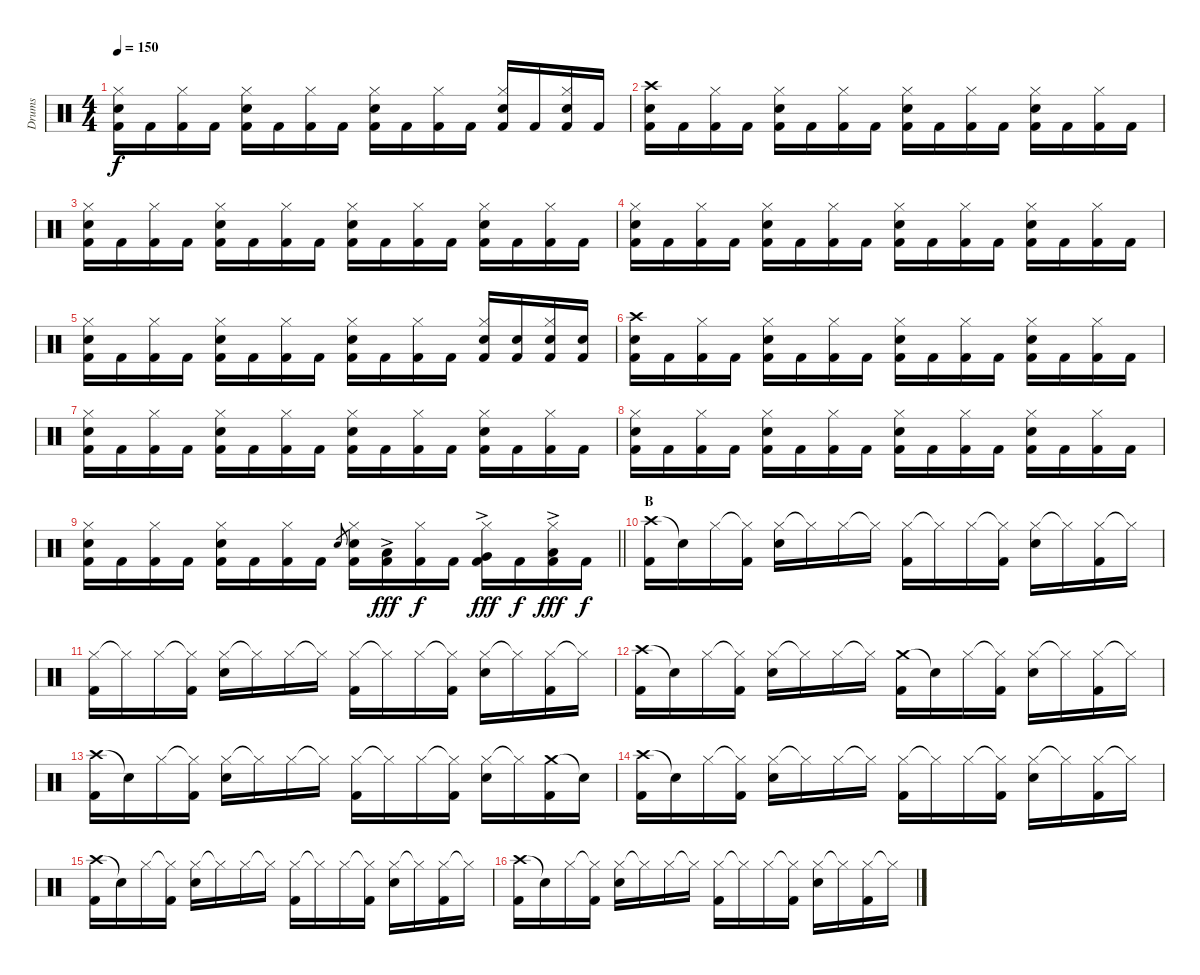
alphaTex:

\track ("Drums" "Drums") {instrument percussion}
\staff {score}
\articulation defaults
\ts (4 4)
\tempo 150
\clef neutral
\ks c
("Snare (hit) 2" "Hi-Hat (closed)" "Kick (hit) 2").16{dy f} "Kick (hit) 2".16 ("Hi-Hat (closed)" "Kick (hit) 2").16 "Kick (hit) 2".16 ("Snare (hit) 2" "Hi-Hat (closed)" "Kick (hit) 2").16 "Kick (hit) 2".16 ("Hi-Hat (closed)" "Kick (hit) 2").16 "Kick (hit) 2".16 ("Snare (hit) 2" "Hi-Hat (closed)" "Kick (hit) 2").16 "Kick (hit) 2".16 ("Hi-Hat (closed)" "Kick (hit) 2").16 "Kick (hit) 2".16 ("Snare (hit) 2" "Hi-Hat (closed)" "Kick (hit) 2").16 "Kick (hit) 2".16 ("Snare (hit) 2" "Hi-Hat (closed)" "Kick (hit) 2").16 "Kick (hit) 2".16 |
\section ("" "")
("Crash high (hit)" "Snare (hit) 2" "Kick (hit) 2").16 "Kick (hit) 2".16 ("Hi-Hat (closed)" "Kick (hit) 2").16 "Kick (hit) 2".16 ("Hi-Hat (closed)" "Snare (hit) 2" "Kick (hit) 2").16 "Kick (hit) 2".16 ("Hi-Hat (closed)" "Kick (hit) 2").16 "Kick (hit) 2".16 ("Hi-Hat (closed)" "Snare (hit) 2" "Kick (hit) 2").16 "Kick (hit) 2".16 ("Hi-Hat (closed)" "Kick (hit) 2").16 "Kick (hit) 2".16 ("Hi-Hat (closed)" "Snare (hit) 2" "Kick (hit) 2").16 "Kick (hit) 2".16 ("Hi-Hat (closed)" "Kick (hit) 2").16 "Kick (hit) 2".16 |
("Snare (hit) 2" "Hi-Hat (closed)" "Kick (hit) 2").16 "Kick (hit) 2".16 ("Hi-Hat (closed)" "Kick (hit) 2").16 "Kick (hit) 2".16 ("Snare (hit) 2" "Hi-Hat (closed)" "Kick (hit) 2").16 "Kick (hit) 2".16 ("Hi-Hat (closed)" "Kick (hit) 2").16 "Kick (hit) 2".16 ("Snare (hit) 2" "Hi-Hat (closed)" "Kick (hit) 2").16 "Kick (hit) 2".16 ("Hi-Hat (closed)" "Kick (hit) 2").16 "Kick (hit) 2".16 ("Snare (hit) 2" "Hi-Hat (closed)" "Kick (hit) 2").16 "Kick (hit) 2".16 ("Hi-Hat (closed)" "Kick (hit) 2").16 "Kick (hit) 2".16 |
("Snare (hit) 2" "Hi-Hat (closed)" "Kick (hit) 2").16 "Kick (hit) 2".16 ("Hi-Hat (closed)" "Kick (hit) 2").16 "Kick (hit) 2".16 ("Snare (hit) 2" "Hi-Hat (closed)" "Kick (hit) 2").16 "Kick (hit) 2".16 ("Hi-Hat (closed)" "Kick (hit) 2").16 "Kick (hit) 2".16 ("Snare (hit) 2" "Hi-Hat (closed)" "Kick (hit) 2").16 "Kick (hit) 2".16 ("Hi-Hat (closed)" "Kick (hit) 2").16 "Kick (hit) 2".16 ("Snare (hit) 2" "Hi-Hat (closed)" "Kick (hit) 2").16 "Kick (hit) 2".16 ("Hi-Hat (closed)" "Kick (hit) 2").16 "Kick (hit) 2".16 |
("Snare (hit) 2" "Hi-Hat (closed)" "Kick (hit) 2").16 "Kick (hit) 2".16 ("Hi-Hat (closed)" "Kick (hit) 2").16 "Kick (hit) 2".16 ("Snare (hit) 2" "Hi-Hat (closed)" "Kick (hit) 2").16 "Kick (hit) 2".16 ("Hi-Hat (closed)" "Kick (hit) 2").16 "Kick (hit) 2".16 ("Snare (hit) 2" "Hi-Hat (closed)" "Kick (hit) 2").16 "Kick (hit) 2".16 ("Hi-Hat (closed)" "Kick (hit) 2").16 "Kick (hit) 2".16 ("Snare (hit) 2" "Hi-Hat (closed)" "Kick (hit) 2").16 ("Snare (hit) 2" "Kick (hit) 2").16 ("Snare (hit) 2" "Hi-Hat (closed)" "Kick (hit) 2").16 ("Snare (hit) 2" "Kick (hit) 2").16 |
("Crash high (hit)" "Snare (hit) 2" "Kick (hit) 2").16 "Kick (hit) 2".16 ("Hi-Hat (closed)" "Kick (hit) 2").16 "Kick (hit) 2".16 ("Hi-Hat (closed)" "Snare (hit) 2" "Kick (hit) 2").16 "Kick (hit) 2".16 ("Hi-Hat (closed)" "Kick (hit) 2").16 "Kick (hit) 2".16 ("Hi-Hat (closed)" "Snare (hit) 2" "Kick (hit) 2").16 "Kick (hit) 2".16 ("Hi-Hat (closed)" "Kick (hit) 2").16 "Kick (hit) 2".16 ("Hi-Hat (closed)" "Snare (hit) 2" "Kick (hit) 2").16 "Kick (hit) 2".16 ("Hi-Hat (closed)" "Kick (hit) 2").16 "Kick (hit) 2".16 |
("Snare (hit) 2" "Hi-Hat (closed)" "Kick (hit) 2").16 "Kick (hit) 2".16 ("Hi-Hat (closed)" "Kick (hit) 2").16 "Kick (hit) 2".16 ("Snare (hit) 2" "Hi-Hat (closed)" "Kick (hit) 2").16 "Kick (hit) 2".16 ("Hi-Hat (closed)" "Kick (hit) 2").16 "Kick (hit) 2".16 ("Snare (hit) 2" "Hi-Hat (closed)" "Kick (hit) 2").16 "Kick (hit) 2".16 ("Hi-Hat (closed)" "Kick (hit) 2").16 "Kick (hit) 2".16 ("Snare (hit) 2" "Hi-Hat (closed)" "Kick (hit) 2").16 "Kick (hit) 2".16 ("Hi-Hat (closed)" "Kick (hit) 2").16 "Kick (hit) 2".16 |
("Snare (hit) 2" "Hi-Hat (closed)" "Kick (hit) 2").16 "Kick (hit) 2".16 ("Hi-Hat (closed)" "Kick (hit) 2").16 "Kick (hit) 2".16 ("Snare (hit) 2" "Hi-Hat (closed)" "Kick (hit) 2").16 "Kick (hit) 2".16 ("Hi-Hat (closed)" "Kick (hit) 2").16 "Kick (hit) 2".16 ("Snare (hit) 2" "Hi-Hat (closed)" "Kick (hit) 2").16 "Kick (hit) 2".16 ("Hi-Hat (closed)" "Kick (hit) 2").16 "Kick (hit) 2".16 ("Snare (hit) 2" "Hi-Hat (closed)" "Kick (hit) 2").16 "Kick (hit) 2".16 ("Hi-Hat (closed)" "Kick (hit) 2").16 "Kick (hit) 2".16 |
\barLineRight lightlight
("Snare (hit) 2" "Hi-Hat (closed)" "Kick (hit) 2").16 "Kick (hit) 2".16 ("Hi-Hat (closed)" "Kick (hit) 2").16 "Kick (hit) 2".16 ("Snare (hit) 2" "Hi-Hat (closed)" "Kick (hit) 2").16 "Kick (hit) 2".16 ("Hi-Hat (closed)" "Kick (hit) 2").16 "Kick (hit) 2".16 "Snare (hit) 2".8{gr} ("Snare (hit) 2" "Hi-Hat (closed)" "Kick (hit) 2").16 ("Low Tom (hit)"{ac} "Kick (hit) 2").16{dy fff} ("Hi-Hat (closed)" "Kick (hit) 2").16{dy f} "Kick (hit) 2".16 ("Very Low Tom (hit)"{ac} "Hi-Hat (closed)" "Kick (hit) 2").16{dy fff} "Kick (hit) 2".16{dy f} ("Low Floor Tom (hit)"{ac} "Hi-Hat (closed)" "Kick (hit) 2").16{dy fff} "Kick (hit) 2".16{dy f} |
\section ("" "B")
("Crash high (hit)" "Kick (hit) 2").16 "Snare (hit)"{t}.16 "Hi-Hat (closed)".16 ("Hi-Hat (closed)"{t} "Kick (hit) 2").16 ("Hi-Hat (closed)" "Snare (hit) 2").16 "Hi-Hat (closed)"{t}.16 "Hi-Hat (closed)".16 "Hi-Hat (closed)"{t}.16 ("Hi-Hat (closed)" "Kick (hit) 2").16 "Hi-Hat (closed)"{t}.16 "Hi-Hat (closed)".16 ("Hi-Hat (closed)"{t} "Kick (hit) 2").16 ("Hi-Hat (closed)" "Snare (hit) 2").16 "Hi-Hat (closed)"{t}.16 ("Hi-Hat (closed)" "Kick (hit) 2").16 "Hi-Hat (closed)"{t}.16 |
("Hi-Hat (closed)" "Kick (hit) 2").16 "Hi-Hat (closed)"{t}.16 "Hi-Hat (closed)".16 ("Hi-Hat (closed)"{t} "Kick (hit) 2").16 ("Hi-Hat (closed)" "Snare (hit) 2").16 "Hi-Hat (closed)"{t}.16 "Hi-Hat (closed)".16 "Hi-Hat (closed)"{t}.16 ("Hi-Hat (closed)" "Kick (hit) 2").16 "Hi-Hat (closed)"{t}.16 "Hi-Hat (closed)".16 ("Hi-Hat (closed)"{t} "Kick (hit) 2").16 ("Hi-Hat (closed)" "Snare (hit) 2").16 "Hi-Hat (closed)"{t}.16 ("Hi-Hat (closed)" "Kick (hit) 2").16 "Hi-Hat (closed)"{t}.16 |
("Crash high (hit)" "Kick (hit) 2").16 "Snare (hit)"{t}.16 "Hi-Hat (closed)".16 ("Hi-Hat (closed)"{t} "Kick (hit) 2").16 ("Hi-Hat (closed)" "Snare (hit) 2").16 "Hi-Hat (closed)"{t}.16 "Hi-Hat (closed)".16 "Hi-Hat (closed)"{t}.16 ("Crash medium (hit)" "Kick (hit) 2").16 "Snare (hit)"{t}.16 "Hi-Hat (closed)".16 ("Hi-Hat (closed)"{t} "Kick (hit) 2").16 ("Hi-Hat (closed)" "Snare (hit) 2").16 "Hi-Hat (closed)"{t}.16 ("Hi-Hat (closed)" "Kick (hit) 2").16 "Hi-Hat (closed)"{t}.16 |
("Crash high (hit)" "Kick (hit) 2").16 "Snare (hit)"{t}.16 "Hi-Hat (closed)".16 ("Hi-Hat (closed)"{t} "Kick (hit) 2").16 ("Hi-Hat (closed)" "Snare (hit) 2").16 "Hi-Hat (closed)"{t}.16 "Hi-Hat (closed)".16 "Hi-Hat (closed)"{t}.16 ("Hi-Hat (closed)" "Kick (hit) 2").16 "Hi-Hat (closed)"{t}.16 "Hi-Hat (closed)".16 ("Hi-Hat (closed)"{t} "Kick (hit) 2").16 ("Hi-Hat (closed)" "Snare (hit) 2").16 "Hi-Hat (closed)"{t}.16 ("Crash medium (hit)" "Kick (hit) 2").16 "Snare (hit)"{t}.16 |
("Crash high (hit)" "Kick (hit) 2").16 "Snare (hit)"{t}.16 "Hi-Hat (closed)".16 ("Hi-Hat (closed)"{t} "Kick (hit) 2").16 ("Hi-Hat (closed)" "Snare (hit) 2").16 "Hi-Hat (closed)"{t}.16 "Hi-Hat (closed)".16 "Hi-Hat (closed)"{t}.16 ("Hi-Hat (closed)" "Kick (hit) 2").16 "Hi-Hat (closed)"{t}.16 "Hi-Hat (closed)".16 ("Hi-Hat (closed)"{t} "Kick (hit) 2").16 ("Hi-Hat (closed)" "Snare (hit) 2").16 "Hi-Hat (closed)"{t}.16 ("Hi-Hat (closed)" "Kick (hit) 2").16 "Hi-Hat (closed)"{t}.16 |
("Crash high (hit)" "Kick (hit) 2").16 "Snare (hit)"{t}.16 "Hi-Hat (closed)".16 ("Hi-Hat (closed)"{t} "Kick (hit) 2").16 ("Hi-Hat (closed)" "Snare (hit) 2").16 "Hi-Hat (closed)"{t}.16 "Hi-Hat (closed)".16 "Hi-Hat (closed)"{t}.16 ("Hi-Hat (closed)" "Kick (hit) 2").16 "Hi-Hat (closed)"{t}.16 "Hi-Hat (closed)".16 ("Hi-Hat (closed)"{t} "Kick (hit) 2").16 ("Hi-Hat (closed)" "Snare (hit) 2").16 "Hi-Hat (closed)"{t}.16 ("Hi-Hat (closed)" "Kick (hit) 2").16 "Hi-Hat (closed)"{t}.16 |
("Crash high (hit)" "Kick (hit) 2").16 "Snare (hit)"{t}.16 "Hi-Hat (closed)".16 ("Hi-Hat (closed)"{t} "Kick (hit) 2").16 ("Hi-Hat (closed)" "Snare (hit) 2").16 "Hi-Hat (closed)"{t}.16 "Hi-Hat (closed)".16 "Hi-Hat (closed)"{t}.16 ("Hi-Hat (closed)" "Kick (hit) 2").16 "Hi-Hat (closed)"{t}.16 "Hi-Hat (closed)".16 ("Hi-Hat (closed)"{t} "Kick (hit) 2").16 ("Hi-Hat (closed)" "Snare (hit) 2").16 "Hi-Hat (closed)"{t}.16 ("Hi-Hat (closed)" "Kick (hit) 2").16 "Hi-Hat (closed)"{t}.16
